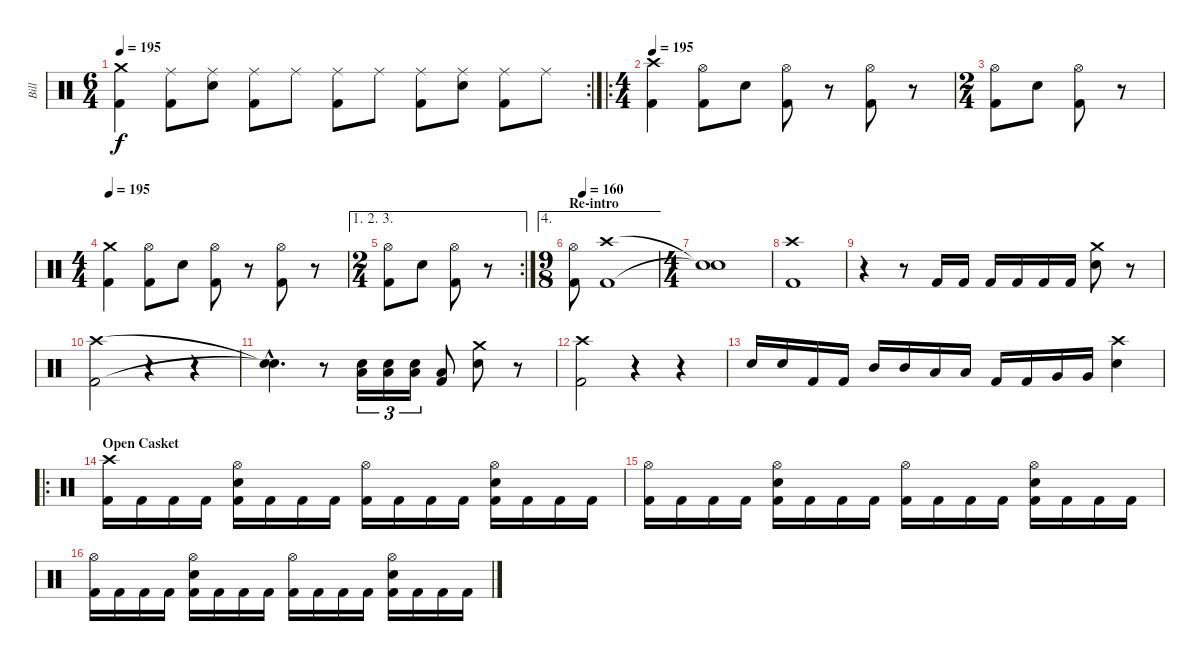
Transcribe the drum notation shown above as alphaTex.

\track ("Bill" "Bill") {instrument percussion}
\staff {score}
\articulation defaults
\rc 2
\ts (6 4)
\tempo 195
\clef neutral
\ks c
("Crash medium (hit)" "Kick (hit) 2").4{dy f} ("Ride (middle)" "Kick (hit) 2").8 ("Ride (middle)" "Electric Snare (hit)").8 ("Ride (middle)" "Kick (hit) 2").8 "Ride (middle)".8 ("Ride (middle)" "Kick (hit) 2").8 "Ride (middle)".8 ("Ride (middle)" "Kick (hit) 2").8 ("Ride (middle)" "Electric Snare (hit)").8 ("Ride (middle)" "Kick (hit) 2").8 "Ride (middle)".8 |
\ro
\ts (4 4)
\tempo 195
("Crash high (hit)" "Kick (hit) 2").4 ("Hi-Hat (open)" "Kick (hit) 2").8 "Electric Snare (hit)".8 ("Hi-Hat (open)" "Kick (hit) 2").8 r.8 ("Hi-Hat (open)" "Kick (hit) 2").8 r.8 |
\ts (2 4)
("Hi-Hat (open)" "Kick (hit) 2").8 "Electric Snare (hit)".8 ("Hi-Hat (open)" "Kick (hit) 2").8 r.8 |
\ts (4 4)
\tempo 195
("Crash medium (hit)" "Kick (hit) 2").4 ("Hi-Hat (open)" "Kick (hit) 2").8 "Electric Snare (hit)".8 ("Hi-Hat (open)" "Kick (hit) 2").8 r.8 ("Hi-Hat (open)" "Kick (hit) 2").8 r.8 |
\ae (1 2 3)
\rc 2
\ts (2 4)
("Hi-Hat (open)" "Kick (hit) 2").8 "Electric Snare (hit)".8 ("Hi-Hat (open)" "Kick (hit) 2").8 r.8 |
\ae 4
\ts (9 8)
\section ("" "Re-intro")
\tempo (160 0.1111111111111111)
("Hi-Hat (open)" "Kick (hit) 2").8 ("Crash high (hit)" "Kick (hit) 2").1 |
\ts (4 4)
("Snare (hit)"{t} "Snare (hit)"{t}).1 |
("Crash high (hit)" "Kick (hit) 2").1 |
r.4 r.8 "Kick (hit) 2".16 "Kick (hit) 2".16 "Kick (hit) 2".16 "Kick (hit) 2".16 "Kick (hit) 2".16 "Kick (hit) 2".16 ("Crash medium (hit)" "Electric Snare (hit)").8 r.8 |
("Crash high (hit)" "Kick (hit) 2").2 r.4 r.4 |
("Snare (hit)"{hac t} "Snare (hit)"{hac t}).4{d} r.8 ("Low Floor Tom (hit)" "Electric Snare (hit)").16{tu (3 2)} ("Low Floor Tom (hit)" "Electric Snare (hit)").16{tu (3 2)} ("Low Floor Tom (hit)" "Electric Snare (hit)").16{tu (3 2)} ("Low Floor Tom (hit)" "Kick (hit) 2").8 ("Crash medium (hit)" "Electric Snare (hit)").8 r.8 |
("Crash high (hit)" "Kick (hit) 2").2 r.4 r.4 |
"Electric Snare (hit)".16 "Electric Snare (hit)".16 "Kick (hit) 2".16 "Kick (hit) 2".16 "Mid Tom (hit)".16 "Mid Tom (hit)".16 "Low Tom (hit)".16 "Low Tom (hit)".16 "Kick (hit) 2".16 "Kick (hit) 2".16 "Very Low Tom (hit)".16 "Very Low Tom (hit)".16 ("Crash high (hit)" "Electric Snare (hit)").4 |
\ro
\section ("" "Open Casket")
("Crash high (hit)" "Kick (hit) 2").16 "Kick (hit) 2".16 "Kick (hit) 2".16 "Kick (hit) 2".16 ("Hi-Hat (open)" "Electric Snare (hit)" "Kick (hit) 2").16 "Kick (hit) 2".16 "Kick (hit) 2".16 "Kick (hit) 2".16 ("Hi-Hat (open)" "Kick (hit) 2").16 "Kick (hit) 2".16 "Kick (hit) 2".16 "Kick (hit) 2".16 ("Hi-Hat (open)" "Electric Snare (hit)" "Kick (hit) 2").16 "Kick (hit) 2".16 "Kick (hit) 2".16 "Kick (hit) 2".16 |
("Hi-Hat (open)" "Kick (hit) 2").16 "Kick (hit) 2".16 "Kick (hit) 2".16 "Kick (hit) 2".16 ("Hi-Hat (open)" "Electric Snare (hit)" "Kick (hit) 2").16 "Kick (hit) 2".16 "Kick (hit) 2".16 "Kick (hit) 2".16 ("Hi-Hat (open)" "Kick (hit) 2").16 "Kick (hit) 2".16 "Kick (hit) 2".16 "Kick (hit) 2".16 ("Hi-Hat (open)" "Electric Snare (hit)" "Kick (hit) 2").16 "Kick (hit) 2".16 "Kick (hit) 2".16 "Kick (hit) 2".16 |
("Hi-Hat (open)" "Kick (hit) 2").16 "Kick (hit) 2".16 "Kick (hit) 2".16 "Kick (hit) 2".16 ("Hi-Hat (open)" "Electric Snare (hit)" "Kick (hit) 2").16 "Kick (hit) 2".16 "Kick (hit) 2".16 "Kick (hit) 2".16 ("Hi-Hat (open)" "Kick (hit) 2").16 "Kick (hit) 2".16 "Kick (hit) 2".16 "Kick (hit) 2".16 ("Hi-Hat (open)" "Electric Snare (hit)" "Kick (hit) 2").16 "Kick (hit) 2".16 "Kick (hit) 2".16 "Kick (hit) 2".16
